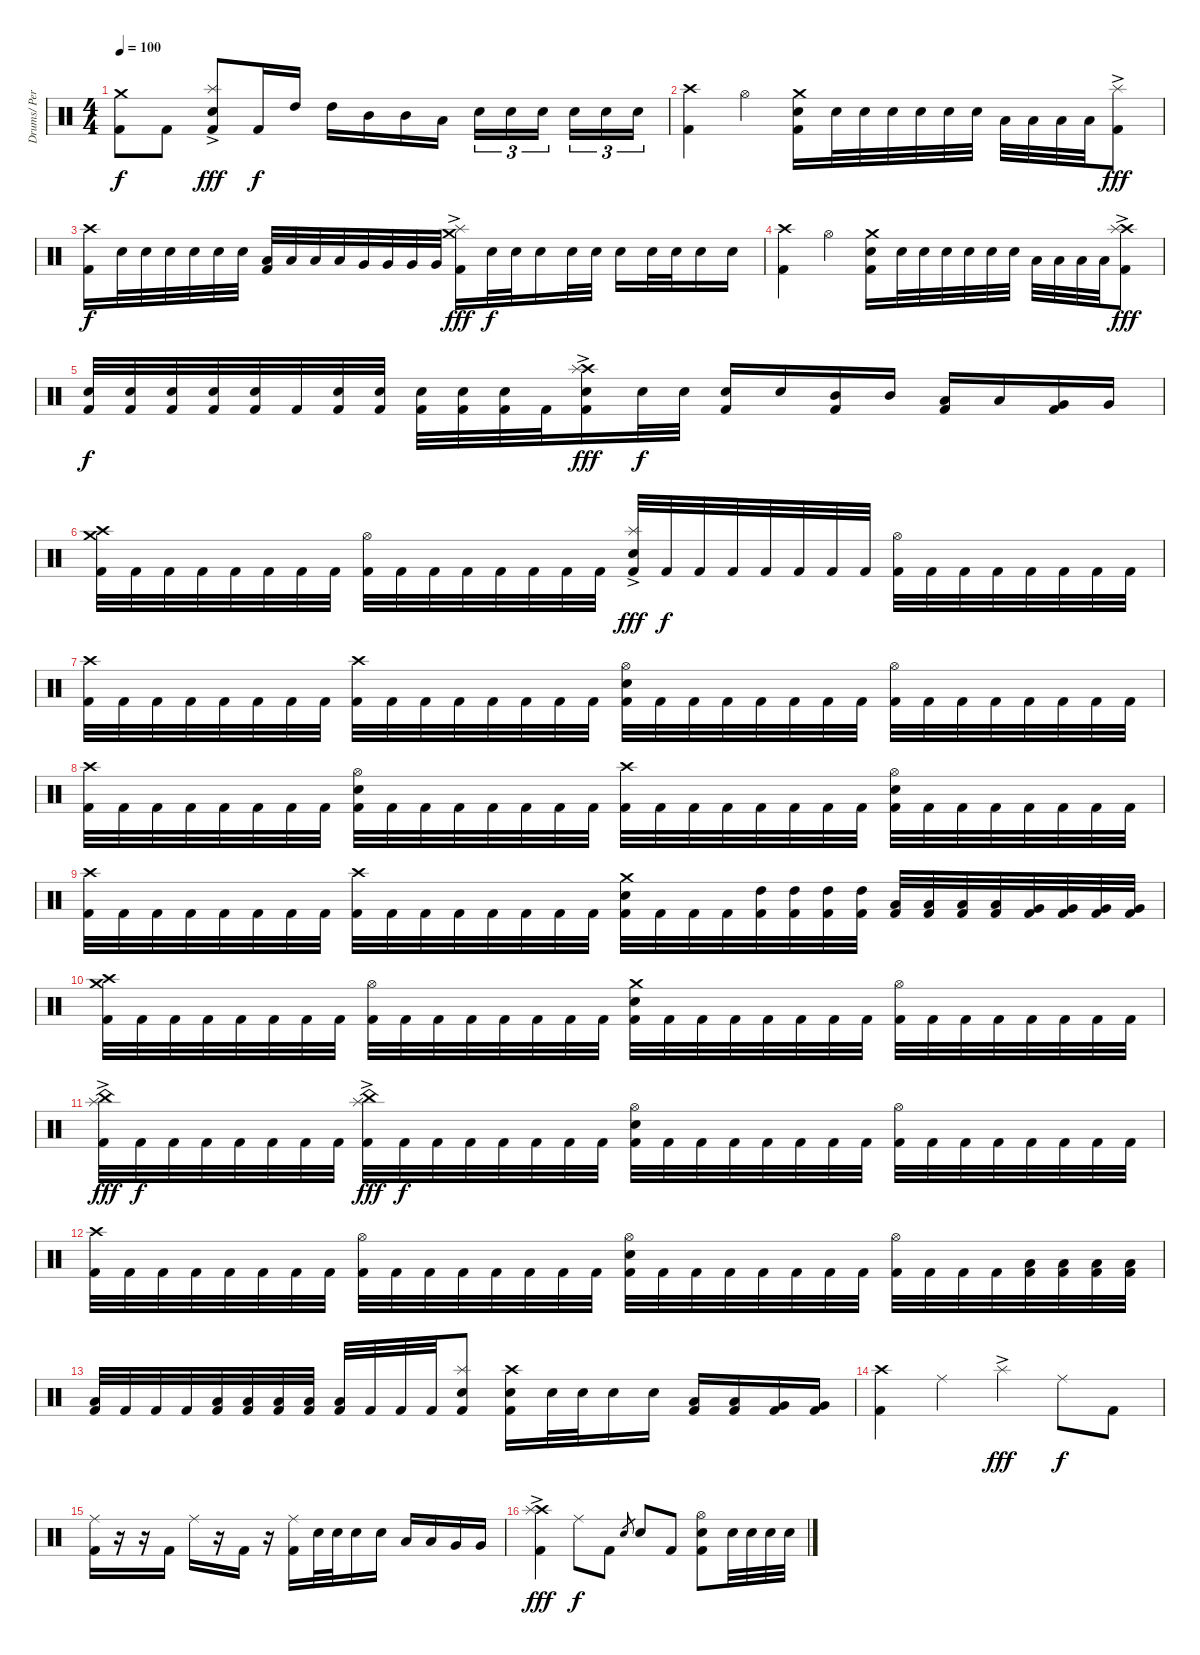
\track ("Drums/ Percussion - Tony Laureano" "Drums/ Per") {instrument percussion}
\staff {score}
\articulation defaults
\ts (4 4)
\tempo 100
\clef neutral
\ks c
("Crash medium (hit)" "Kick (hit) 2").8{dy f} "Kick (hit) 2".8 ("Splash (hit)"{ac} "Electric Snare (hit)" "Kick (hit) 2").8{dy fff} "Kick (hit) 2".16{dy f} "High Tom (hit)".16 "High Tom (hit)".16 "Mid Tom (hit)".16 "Mid Tom (hit)".16 "Low Tom (hit)".16 "Electric Snare (hit)".16{tu (3 2)} "Electric Snare (hit)".16{tu (3 2)} "Electric Snare (hit)".16{tu (3 2)} "Electric Snare (hit)".16{tu (3 2)} "Electric Snare (hit)".16{tu (3 2)} "Electric Snare (hit)".16{tu (3 2)} |
("Crash high (hit)" "Kick (hit) 2").4 "Hi-Hat (open)".4 ("Crash medium (hit)" "Electric Snare (hit)" "Kick (hit) 2").16 "Electric Snare (hit)".32 "Electric Snare (hit)".32 "Electric Snare (hit)".32 "Electric Snare (hit)".32 "Electric Snare (hit)".32 "Electric Snare (hit)".32 "Low Tom (hit)".32 "Low Tom (hit)".32 "Low Tom (hit)".32 "Low Tom (hit)".32 ("Splash (hit)"{ac} "Kick (hit) 2").8{dy fff} |
("Crash high (hit)" "Kick (hit) 2").16{dy f} "Electric Snare (hit)".32 "Electric Snare (hit)".32 "Electric Snare (hit)".32 "Electric Snare (hit)".32 "Electric Snare (hit)".32 "Electric Snare (hit)".32 ("Low Tom (hit)" "Kick (hit) 2").32 "Low Tom (hit)".32 "Low Tom (hit)".32 "Low Tom (hit)".32 "Very Low Tom (hit)".32 "Very Low Tom (hit)".32 "Very Low Tom (hit)".32 "Very Low Tom (hit)".32 ("Crash medium (hit)" "Splash (hit)"{ac} "Kick (hit) 2").16{dy fff} "Electric Snare (hit)".32{dy f} "Electric Snare (hit)".32 "Electric Snare (hit)".16 "Electric Snare (hit)".32 "Electric Snare (hit)".32 "Electric Snare (hit)".16 "Electric Snare (hit)".32 "Electric Snare (hit)".32 "Electric Snare (hit)".16 "Electric Snare (hit)".16 |
("Crash high (hit)" "Kick (hit) 2").4 "Hi-Hat (open)".4 ("Crash medium (hit)" "Electric Snare (hit)" "Kick (hit) 2").16 "Electric Snare (hit)".32 "Electric Snare (hit)".32 "Electric Snare (hit)".32 "Electric Snare (hit)".32 "Electric Snare (hit)".32 "Electric Snare (hit)".32 "Low Tom (hit)".32 "Low Tom (hit)".32 "Low Tom (hit)".32 "Low Tom (hit)".32 ("Crash high (hit)" "Splash (hit)"{ac} "Kick (hit) 2").8{dy fff} |
("Electric Snare (hit)" "Kick (hit) 2").32{dy f} ("Electric Snare (hit)" "Kick (hit) 2").32 ("Electric Snare (hit)" "Kick (hit) 2").32 ("Electric Snare (hit)" "Kick (hit) 2").32 ("Electric Snare (hit)" "Kick (hit) 2").32 "Kick (hit) 2".32 ("Electric Snare (hit)" "Kick (hit) 2").32 ("Electric Snare (hit)" "Kick (hit) 2").32 ("Electric Snare (hit)" "Kick (hit) 2").32 ("Electric Snare (hit)" "Kick (hit) 2").32 ("Electric Snare (hit)" "Kick (hit) 2").32 "Kick (hit) 2".32 ("Crash high (hit)" "Splash (hit)"{ac} "Electric Snare (hit)" "Kick (hit) 2").16{dy fff} "Electric Snare (hit)".32{dy f} "Electric Snare (hit)".32 ("Electric Snare (hit)" "Kick (hit) 2").16 "Electric Snare (hit)".16 ("Mid Tom (hit)" "Kick (hit) 2").16 "Mid Tom (hit)".16 ("Low Tom (hit)" "Kick (hit) 2").16 "Low Tom (hit)".16 ("Very Low Tom (hit)" "Kick (hit) 2").16 "Very Low Tom (hit)".16 |
("Crash high (hit)" "Crash medium (hit)" "Kick (hit) 2").32 "Kick (hit) 2".32 "Kick (hit) 2".32 "Kick (hit) 2".32 "Kick (hit) 2".32 "Kick (hit) 2".32 "Kick (hit) 2".32 "Kick (hit) 2".32 ("Hi-Hat (open)" "Kick (hit) 2").32 "Kick (hit) 2".32 "Kick (hit) 2".32 "Kick (hit) 2".32 "Kick (hit) 2".32 "Kick (hit) 2".32 "Kick (hit) 2".32 "Kick (hit) 2".32 ("Splash (hit)"{ac} "Electric Snare (hit)" "Kick (hit) 2").32{dy fff} "Kick (hit) 2".32{dy f} "Kick (hit) 2".32 "Kick (hit) 2".32 "Kick (hit) 2".32 "Kick (hit) 2".32 "Kick (hit) 2".32 "Kick (hit) 2".32 ("Hi-Hat (open)" "Kick (hit) 2").32 "Kick (hit) 2".32 "Kick (hit) 2".32 "Kick (hit) 2".32 "Kick (hit) 2".32 "Kick (hit) 2".32 "Kick (hit) 2".32 "Kick (hit) 2".32 |
("Crash high (hit)" "Kick (hit) 2").32 "Kick (hit) 2".32 "Kick (hit) 2".32 "Kick (hit) 2".32 "Kick (hit) 2".32 "Kick (hit) 2".32 "Kick (hit) 2".32 "Kick (hit) 2".32 ("Crash high (hit)" "Kick (hit) 2").32 "Kick (hit) 2".32 "Kick (hit) 2".32 "Kick (hit) 2".32 "Kick (hit) 2".32 "Kick (hit) 2".32 "Kick (hit) 2".32 "Kick (hit) 2".32 ("Hi-Hat (open)" "Electric Snare (hit)" "Kick (hit) 2").32 "Kick (hit) 2".32 "Kick (hit) 2".32 "Kick (hit) 2".32 "Kick (hit) 2".32 "Kick (hit) 2".32 "Kick (hit) 2".32 "Kick (hit) 2".32 ("Hi-Hat (open)" "Kick (hit) 2").32 "Kick (hit) 2".32 "Kick (hit) 2".32 "Kick (hit) 2".32 "Kick (hit) 2".32 "Kick (hit) 2".32 "Kick (hit) 2".32 "Kick (hit) 2".32 |
("Crash high (hit)" "Kick (hit) 2").32 "Kick (hit) 2".32 "Kick (hit) 2".32 "Kick (hit) 2".32 "Kick (hit) 2".32 "Kick (hit) 2".32 "Kick (hit) 2".32 "Kick (hit) 2".32 ("Hi-Hat (open)" "Electric Snare (hit)" "Kick (hit) 2").32 "Kick (hit) 2".32 "Kick (hit) 2".32 "Kick (hit) 2".32 "Kick (hit) 2".32 "Kick (hit) 2".32 "Kick (hit) 2".32 "Kick (hit) 2".32 ("Crash high (hit)" "Kick (hit) 2").32 "Kick (hit) 2".32 "Kick (hit) 2".32 "Kick (hit) 2".32 "Kick (hit) 2".32 "Kick (hit) 2".32 "Kick (hit) 2".32 "Kick (hit) 2".32 ("Hi-Hat (open)" "Electric Snare (hit)" "Kick (hit) 2").32 "Kick (hit) 2".32 "Kick (hit) 2".32 "Kick (hit) 2".32 "Kick (hit) 2".32 "Kick (hit) 2".32 "Kick (hit) 2".32 "Kick (hit) 2".32 |
("Crash high (hit)" "Kick (hit) 2").32 "Kick (hit) 2".32 "Kick (hit) 2".32 "Kick (hit) 2".32 "Kick (hit) 2".32 "Kick (hit) 2".32 "Kick (hit) 2".32 "Kick (hit) 2".32 ("Crash high (hit)" "Kick (hit) 2").32 "Kick (hit) 2".32 "Kick (hit) 2".32 "Kick (hit) 2".32 "Kick (hit) 2".32 "Kick (hit) 2".32 "Kick (hit) 2".32 "Kick (hit) 2".32 ("Crash medium (hit)" "Electric Snare (hit)" "Kick (hit) 2").32 "Kick (hit) 2".32 "Kick (hit) 2".32 "Kick (hit) 2".32 ("High Tom (hit)" "Kick (hit) 2").32 ("High Tom (hit)" "Kick (hit) 2").32 ("High Tom (hit)" "Kick (hit) 2").32 ("High Tom (hit)" "Kick (hit) 2").32 ("Low Tom (hit)" "Kick (hit) 2").32 ("Low Tom (hit)" "Kick (hit) 2").32 ("Low Tom (hit)" "Kick (hit) 2").32 ("Low Tom (hit)" "Kick (hit) 2").32 ("Very Low Tom (hit)" "Kick (hit) 2").32 ("Very Low Tom (hit)" "Kick (hit) 2").32 ("Very Low Tom (hit)" "Kick (hit) 2").32 ("Very Low Tom (hit)" "Kick (hit) 2").32 |
("Crash high (hit)" "Crash medium (hit)" "Kick (hit) 2").32 "Kick (hit) 2".32 "Kick (hit) 2".32 "Kick (hit) 2".32 "Kick (hit) 2".32 "Kick (hit) 2".32 "Kick (hit) 2".32 "Kick (hit) 2".32 ("Hi-Hat (open)" "Kick (hit) 2").32 "Kick (hit) 2".32 "Kick (hit) 2".32 "Kick (hit) 2".32 "Kick (hit) 2".32 "Kick (hit) 2".32 "Kick (hit) 2".32 "Kick (hit) 2".32 ("Crash medium (hit)" "Electric Snare (hit)" "Kick (hit) 2").32 "Kick (hit) 2".32 "Kick (hit) 2".32 "Kick (hit) 2".32 "Kick (hit) 2".32 "Kick (hit) 2".32 "Kick (hit) 2".32 "Kick (hit) 2".32 ("Hi-Hat (open)" "Kick (hit) 2").32 "Kick (hit) 2".32 "Kick (hit) 2".32 "Kick (hit) 2".32 "Kick (hit) 2".32 "Kick (hit) 2".32 "Kick (hit) 2".32 "Kick (hit) 2".32 |
("Splash (hit)"{ac} "China (hit)" "Kick (hit) 2").32{dy fff} "Kick (hit) 2".32{dy f} "Kick (hit) 2".32 "Kick (hit) 2".32 "Kick (hit) 2".32 "Kick (hit) 2".32 "Kick (hit) 2".32 "Kick (hit) 2".32 ("Splash (hit)"{ac} "China (hit)" "Kick (hit) 2").32{dy fff} "Kick (hit) 2".32{dy f} "Kick (hit) 2".32 "Kick (hit) 2".32 "Kick (hit) 2".32 "Kick (hit) 2".32 "Kick (hit) 2".32 "Kick (hit) 2".32 ("Hi-Hat (open)" "Electric Snare (hit)" "Kick (hit) 2").32 "Kick (hit) 2".32 "Kick (hit) 2".32 "Kick (hit) 2".32 "Kick (hit) 2".32 "Kick (hit) 2".32 "Kick (hit) 2".32 "Kick (hit) 2".32 ("Hi-Hat (open)" "Kick (hit) 2").32 "Kick (hit) 2".32 "Kick (hit) 2".32 "Kick (hit) 2".32 "Kick (hit) 2".32 "Kick (hit) 2".32 "Kick (hit) 2".32 "Kick (hit) 2".32 |
("Crash high (hit)" "Kick (hit) 2").32 "Kick (hit) 2".32 "Kick (hit) 2".32 "Kick (hit) 2".32 "Kick (hit) 2".32 "Kick (hit) 2".32 "Kick (hit) 2".32 "Kick (hit) 2".32 ("Hi-Hat (open)" "Kick (hit) 2").32 "Kick (hit) 2".32 "Kick (hit) 2".32 "Kick (hit) 2".32 "Kick (hit) 2".32 "Kick (hit) 2".32 "Kick (hit) 2".32 "Kick (hit) 2".32 ("Hi-Hat (open)" "Electric Snare (hit)" "Kick (hit) 2").32 "Kick (hit) 2".32 "Kick (hit) 2".32 "Kick (hit) 2".32 "Kick (hit) 2".32 "Kick (hit) 2".32 "Kick (hit) 2".32 "Kick (hit) 2".32 ("Hi-Hat (open)" "Kick (hit) 2").32 "Kick (hit) 2".32 "Kick (hit) 2".32 "Kick (hit) 2".32 ("Low Floor Tom (hit)" "Kick (hit) 2").32 ("Low Floor Tom (hit)" "Kick (hit) 2").32 ("Low Floor Tom (hit)" "Kick (hit) 2").32 ("Low Floor Tom (hit)" "Kick (hit) 2").32 |
("Low Floor Tom (hit)" "Kick (hit) 2").32 "Kick (hit) 2".32 "Kick (hit) 2".32 "Kick (hit) 2".32 ("Low Floor Tom (hit)" "Kick (hit) 2").32 ("Low Floor Tom (hit)" "Kick (hit) 2").32 ("Low Floor Tom (hit)" "Kick (hit) 2").32 ("Low Floor Tom (hit)" "Kick (hit) 2").32 ("Low Floor Tom (hit)" "Kick (hit) 2").32 "Kick (hit) 2".32 "Kick (hit) 2".32 "Kick (hit) 2".32 ("Splash (hit)" "Electric Snare (hit)" "Kick (hit) 2").8 ("Crash high (hit)" "Electric Snare (hit)" "Kick (hit) 2").16 "Electric Snare (hit)".32 "Electric Snare (hit)".32 "Electric Snare (hit)".16 "Electric Snare (hit)".16 ("Low Tom (hit)" "Kick (hit) 2").16 ("Low Tom (hit)" "Kick (hit) 2").16 ("Very Low Tom (hit)" "Kick (hit) 2").16 ("Very Low Tom (hit)" "Kick (hit) 2").16 |
("Crash high (hit)" "Kick (hit) 2").4 "Ride (middle)".4 "Splash (hit)"{ac}.4{dy fff} "Ride (middle)".8{dy f} "Kick (hit) 2".8 |
("Ride (middle)" "Kick (hit) 2").16 r.16 r.16 "Kick (hit) 2".16 "Ride (middle)".16 r.16 "Kick (hit) 2".16 r.16 ("Ride (middle)" "Kick (hit) 2").16 "Electric Snare (hit)".32 "Electric Snare (hit)".32 "Electric Snare (hit)".16 "Electric Snare (hit)".16 "Low Tom (hit)".16 "Low Tom (hit)".16 "Very Low Tom (hit)".16 "Very Low Tom (hit)".16 |
("Crash high (hit)" "Splash (hit)"{ac} "Kick (hit) 2").4{dy fff} "Ride (middle)".8{dy f} "Kick (hit) 2".8 "Electric Snare (hit)".8{gr} "Electric Snare (hit)".8 "Kick (hit) 2".8 ("Hi-Hat (open)" "Electric Snare (hit)" "Kick (hit) 2").8 "Electric Snare (hit)".32 "Electric Snare (hit)".32 "Electric Snare (hit)".32 "Electric Snare (hit)".32
